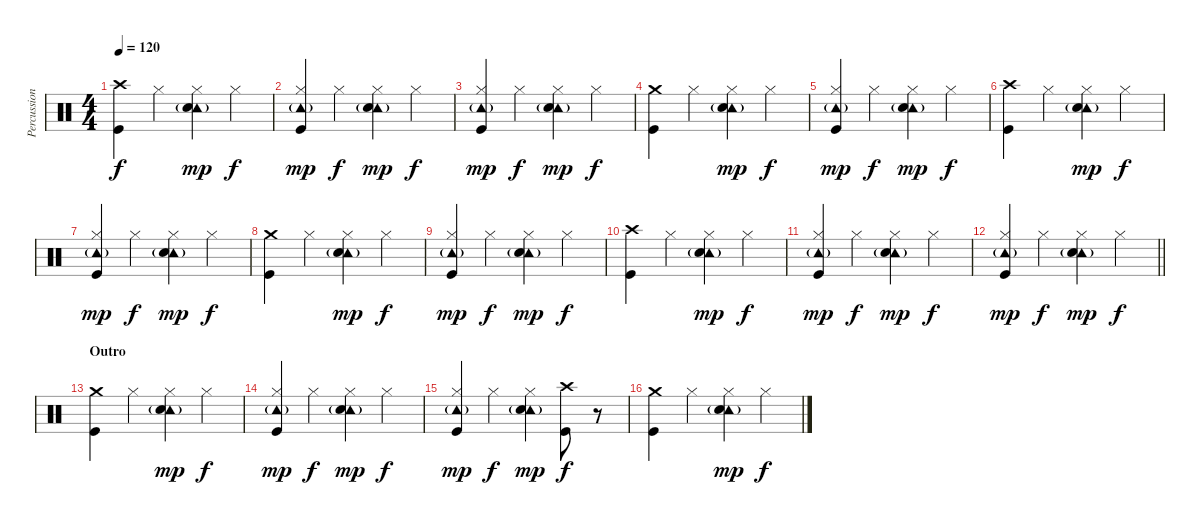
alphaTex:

\track ("Percussioni" "Percussion") {instrument percussion}
\staff {score}
\articulation defaults
\ts (4 4)
\tempo 120
\clef neutral
\ks c
("Crash high (hit)" "Kick (hit)").4{dy f} "Hi-Hat (closed)".4 ("Tambourine (hit)"{g} "Hi-Hat (closed)" "Snare (hit) 2").4{dy mp} "Hi-Hat (closed)".4{dy f} |
("Tambourine (hit)"{g} "Hi-Hat (closed)" "Kick (hit)").4{dy mp} "Hi-Hat (closed)".4{dy f} ("Tambourine (hit)"{g} "Hi-Hat (closed)" "Snare (hit) 2").4{dy mp} "Hi-Hat (closed)".4{dy f} |
("Tambourine (hit)"{g} "Hi-Hat (closed)" "Kick (hit)").4{dy mp} "Hi-Hat (closed)".4{dy f} ("Tambourine (hit)"{g} "Hi-Hat (closed)" "Snare (hit) 2").4{dy mp} "Hi-Hat (closed)".4{dy f} |
("Crash medium (hit)" "Kick (hit)").4 "Hi-Hat (closed)".4 ("Tambourine (hit)"{g} "Hi-Hat (closed)" "Snare (hit) 2").4{dy mp} "Hi-Hat (closed)".4{dy f} |
("Tambourine (hit)"{g} "Hi-Hat (closed)" "Kick (hit)").4{dy mp} "Hi-Hat (closed)".4{dy f} ("Tambourine (hit)"{g} "Hi-Hat (closed)" "Snare (hit) 2").4{dy mp} "Hi-Hat (closed)".4{dy f} |
("Crash high (hit)" "Kick (hit)").4 "Hi-Hat (closed)".4 ("Tambourine (hit)"{g} "Hi-Hat (closed)" "Snare (hit) 2").4{dy mp} "Hi-Hat (closed)".4{dy f} |
("Tambourine (hit)"{g} "Hi-Hat (closed)" "Kick (hit)").4{dy mp} "Hi-Hat (closed)".4{dy f} ("Tambourine (hit)"{g} "Hi-Hat (closed)" "Snare (hit) 2").4{dy mp} "Hi-Hat (closed)".4{dy f} |
("Crash medium (hit)" "Kick (hit)").4 "Hi-Hat (closed)".4 ("Tambourine (hit)"{g} "Hi-Hat (closed)" "Snare (hit) 2").4{dy mp} "Hi-Hat (closed)".4{dy f} |
("Tambourine (hit)"{g} "Hi-Hat (closed)" "Kick (hit)").4{dy mp} "Hi-Hat (closed)".4{dy f} ("Tambourine (hit)"{g} "Hi-Hat (closed)" "Snare (hit) 2").4{dy mp} "Hi-Hat (closed)".4{dy f} |
("Crash high (hit)" "Kick (hit)").4 "Hi-Hat (closed)".4 ("Tambourine (hit)"{g} "Hi-Hat (closed)" "Snare (hit) 2").4{dy mp} "Hi-Hat (closed)".4{dy f} |
("Tambourine (hit)"{g} "Hi-Hat (closed)" "Kick (hit)").4{dy mp} "Hi-Hat (closed)".4{dy f} ("Tambourine (hit)"{g} "Hi-Hat (closed)" "Snare (hit) 2").4{dy mp} "Hi-Hat (closed)".4{dy f} |
\barLineRight lightlight
("Tambourine (hit)"{g} "Hi-Hat (closed)" "Kick (hit)").4{dy mp} "Hi-Hat (closed)".4{dy f} ("Tambourine (hit)"{g} "Hi-Hat (closed)" "Snare (hit) 2").4{dy mp} "Hi-Hat (closed)".4{dy f} |
\section ("" "Outro")
("Crash medium (hit)" "Kick (hit)").4 "Hi-Hat (closed)".4 ("Tambourine (hit)"{g} "Hi-Hat (closed)" "Snare (hit) 2").4{dy mp} "Hi-Hat (closed)".4{dy f} |
("Tambourine (hit)"{g} "Hi-Hat (closed)" "Kick (hit)").4{dy mp} "Hi-Hat (closed)".4{dy f} ("Tambourine (hit)"{g} "Hi-Hat (closed)" "Snare (hit) 2").4{dy mp} "Hi-Hat (closed)".4{dy f} |
("Tambourine (hit)"{g} "Hi-Hat (closed)" "Kick (hit)").4{dy mp} "Hi-Hat (closed)".4{dy f} ("Tambourine (hit)"{g} "Hi-Hat (closed)" "Snare (hit) 2").4{dy mp} ("Crash high (hit)" "Kick (hit)").8{dy f} r.8 |
("Crash medium (hit)" "Kick (hit)").4 "Hi-Hat (closed)".4 ("Tambourine (hit)"{g} "Hi-Hat (closed)" "Snare (hit) 2").4{dy mp} "Hi-Hat (closed)".4{dy f}
